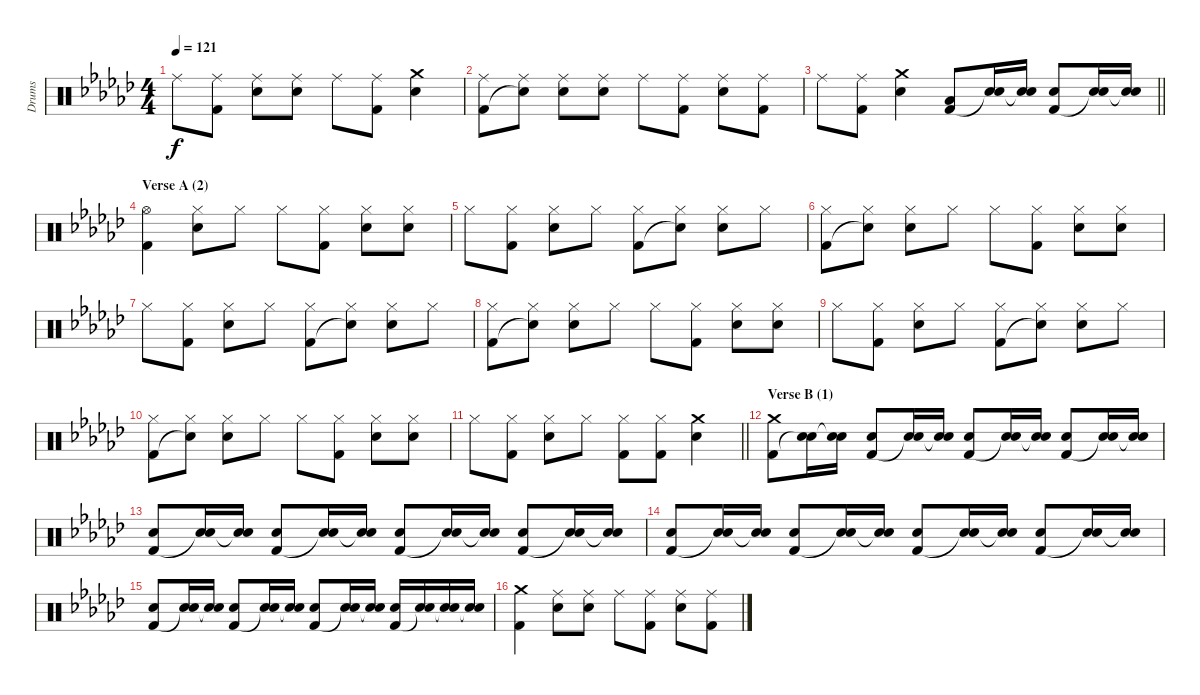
\track ("Drums" "Drums") {instrument percussion}
\staff {score}
\articulation defaults
\ts (4 4)
\tempo 121
\clef neutral
\ks ebminor "Ride (middle)".8{dy f}
("Ride (middle)" "Kick (hit) 2").8 ("Ride (middle)" "Electric Snare (hit)").8 ("Ride (middle)" "Electric Snare (hit)").8 "Ride (middle)".8 ("Ride (middle)" "Kick (hit) 2").8 ("Crash medium (hit)" "Electric Snare (hit)").4 |
("Ride (middle)" "Kick (hit) 2").8 ("Ride (middle)" "Snare (hit)"{t}).8 ("Ride (middle)" "Electric Snare (hit)").8 ("Ride (middle)" "Electric Snare (hit)").8 "Ride (middle)".8 ("Ride (middle)" "Kick (hit) 2").8 ("Ride (middle)" "Electric Snare (hit)").8 ("Ride (middle)" "Kick (hit) 2").8 |
\barLineRight lightlight "Ride (middle)".8
("Ride (middle)" "Kick (hit) 2").8 ("Crash medium (hit)" "Electric Snare (hit)").4 ("Low Floor Tom (hit)" "Kick (hit) 2").8 ("Electric Snare (hit)" "Snare (hit)"{t}).16 ("Electric Snare (hit)" "Snare (hit)"{t}).16 ("Electric Snare (hit)" "Kick (hit) 2").8 ("Electric Snare (hit)" "Snare (hit)"{t}).16 ("Electric Snare (hit)" "Snare (hit)"{t}).16 |
\section ("" "Verse A (2)")
("Hi-Hat (open)" "Kick (hit) 2").4 ("Hi-Hat (closed)" "Electric Snare (hit)").8 "Hi-Hat (closed)".8 "Hi-Hat (closed)".8 ("Hi-Hat (closed)" "Kick (hit) 2").8 ("Hi-Hat (closed)" "Electric Snare (hit)").8 ("Hi-Hat (closed)" "Electric Snare (hit)").8 |
"Hi-Hat (closed)".8 ("Hi-Hat (closed)" "Kick (hit) 2").8 ("Hi-Hat (closed)" "Electric Snare (hit)").8 "Hi-Hat (closed)".8 ("Hi-Hat (closed)" "Kick (hit) 2").8 ("Hi-Hat (closed)" "Snare (hit)"{t}).8 ("Hi-Hat (closed)" "Electric Snare (hit)").8 "Hi-Hat (closed)".8 |
("Hi-Hat (closed)" "Kick (hit) 2").8 ("Hi-Hat (closed)" "Snare (hit)"{t}).8 ("Hi-Hat (closed)" "Electric Snare (hit)").8 "Hi-Hat (closed)".8 "Hi-Hat (closed)".8 ("Hi-Hat (closed)" "Kick (hit) 2").8 ("Hi-Hat (closed)" "Electric Snare (hit)").8 ("Hi-Hat (closed)" "Electric Snare (hit)").8 |
"Hi-Hat (closed)".8 ("Hi-Hat (closed)" "Kick (hit) 2").8 ("Hi-Hat (closed)" "Electric Snare (hit)").8 "Hi-Hat (closed)".8 ("Hi-Hat (closed)" "Kick (hit) 2").8 ("Hi-Hat (closed)" "Snare (hit)"{t}).8 ("Hi-Hat (closed)" "Electric Snare (hit)").8 "Hi-Hat (closed)".8 |
("Hi-Hat (closed)" "Kick (hit) 2").8 ("Hi-Hat (closed)" "Snare (hit)"{t}).8 ("Hi-Hat (closed)" "Electric Snare (hit)").8 "Hi-Hat (closed)".8 "Hi-Hat (closed)".8 ("Hi-Hat (closed)" "Kick (hit) 2").8 ("Hi-Hat (closed)" "Electric Snare (hit)").8 ("Hi-Hat (closed)" "Electric Snare (hit)").8 |
"Hi-Hat (closed)".8 ("Hi-Hat (closed)" "Kick (hit) 2").8 ("Hi-Hat (closed)" "Electric Snare (hit)").8 "Hi-Hat (closed)".8 ("Hi-Hat (closed)" "Kick (hit) 2").8 ("Hi-Hat (closed)" "Snare (hit)"{t}).8 ("Hi-Hat (closed)" "Electric Snare (hit)").8 "Hi-Hat (closed)".8 |
("Hi-Hat (closed)" "Kick (hit) 2").8 ("Hi-Hat (closed)" "Snare (hit)"{t}).8 ("Hi-Hat (closed)" "Electric Snare (hit)").8 "Hi-Hat (closed)".8 "Hi-Hat (closed)".8 ("Hi-Hat (closed)" "Kick (hit) 2").8 ("Hi-Hat (closed)" "Electric Snare (hit)").8 ("Hi-Hat (closed)" "Electric Snare (hit)").8 |
\barLineRight lightlight "Hi-Hat (closed)".8
("Hi-Hat (closed)" "Kick (hit) 2").8 ("Hi-Hat (closed)" "Electric Snare (hit)").8 "Hi-Hat (closed)".8 ("Hi-Hat (closed)" "Kick (hit) 2").8 ("Hi-Hat (closed)" "Kick (hit) 2").8 ("Crash medium (hit)" "Electric Snare (hit)").4 |
\section ("" "Verse B (1)")
("Crash medium (hit)" "Kick (hit) 2").8 ("Electric Snare (hit)" "Snare (hit)"{t}).16 ("Electric Snare (hit)" "Snare (hit)"{t}).16 ("Electric Snare (hit)" "Kick (hit) 2").8 ("Electric Snare (hit)" "Snare (hit)"{t}).16 ("Electric Snare (hit)" "Snare (hit)"{t}).16 ("Electric Snare (hit)" "Kick (hit) 2").8 ("Electric Snare (hit)" "Snare (hit)"{t}).16 ("Electric Snare (hit)" "Snare (hit)"{t}).16 ("Electric Snare (hit)" "Kick (hit) 2").8 ("Electric Snare (hit)" "Snare (hit)"{t}).16 ("Electric Snare (hit)" "Snare (hit)"{t}).16 |
("Electric Snare (hit)" "Kick (hit) 2").8 ("Electric Snare (hit)" "Snare (hit)"{t}).16 ("Electric Snare (hit)" "Snare (hit)"{t}).16 ("Electric Snare (hit)" "Kick (hit) 2").8 ("Electric Snare (hit)" "Snare (hit)"{t}).16 ("Electric Snare (hit)" "Snare (hit)"{t}).16 ("Electric Snare (hit)" "Kick (hit) 2").8 ("Electric Snare (hit)" "Snare (hit)"{t}).16 ("Electric Snare (hit)" "Snare (hit)"{t}).16 ("Electric Snare (hit)" "Kick (hit) 2").8 ("Electric Snare (hit)" "Snare (hit)"{t}).16 ("Electric Snare (hit)" "Snare (hit)"{t}).16 |
("Electric Snare (hit)" "Kick (hit) 2").8 ("Electric Snare (hit)" "Snare (hit)"{t}).16 ("Electric Snare (hit)" "Snare (hit)"{t}).16 ("Electric Snare (hit)" "Kick (hit) 2").8 ("Electric Snare (hit)" "Snare (hit)"{t}).16 ("Electric Snare (hit)" "Snare (hit)"{t}).16 ("Electric Snare (hit)" "Kick (hit) 2").8 ("Electric Snare (hit)" "Snare (hit)"{t}).16 ("Electric Snare (hit)" "Snare (hit)"{t}).16 ("Electric Snare (hit)" "Kick (hit) 2").8 ("Electric Snare (hit)" "Snare (hit)"{t}).16 ("Electric Snare (hit)" "Snare (hit)"{t}).16 |
("Electric Snare (hit)" "Kick (hit) 2").8 ("Electric Snare (hit)" "Snare (hit)"{t}).16 ("Electric Snare (hit)" "Snare (hit)"{t}).16 ("Electric Snare (hit)" "Kick (hit) 2").8 ("Electric Snare (hit)" "Snare (hit)"{t}).16 ("Electric Snare (hit)" "Snare (hit)"{t}).16 ("Electric Snare (hit)" "Kick (hit) 2").8 ("Electric Snare (hit)" "Snare (hit)"{t}).16 ("Electric Snare (hit)" "Snare (hit)"{t}).16 ("Electric Snare (hit)" "Kick (hit) 2").16 ("Electric Snare (hit)" "Snare (hit)"{t}).16 ("Electric Snare (hit)" "Snare (hit)"{t}).16 ("Electric Snare (hit)" "Snare (hit)"{t}).16 |
("Crash medium (hit)" "Kick (hit) 2").4 ("Ride (middle)" "Electric Snare (hit)").8 ("Ride (middle)" "Electric Snare (hit)").8 "Ride (middle)".8 ("Ride (middle)" "Kick (hit) 2").8 ("Ride (middle)" "Electric Snare (hit)").8 ("Ride (middle)" "Kick (hit) 2").8
